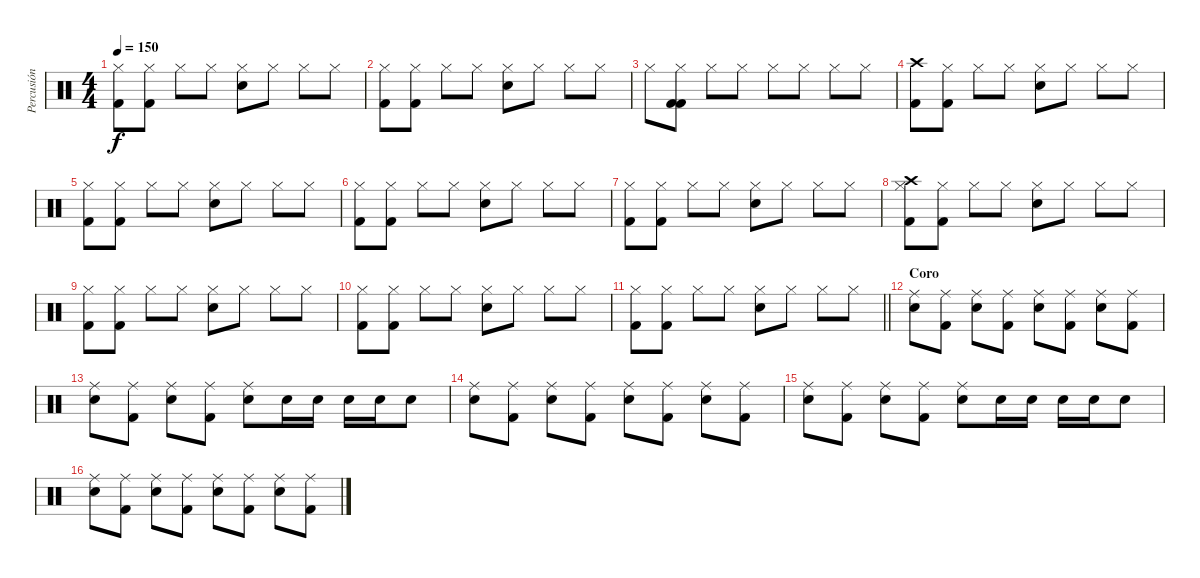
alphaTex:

\track ("Percusión" "Percusión") {instrument percussion}
\staff {score}
\articulation defaults
\ts (4 4)
\tempo 150
\clef neutral
\ks c
("Hi-Hat (closed)" "Kick (hit) 2").8{dy f} ("Hi-Hat (closed)" "Kick (hit) 2").8 "Hi-Hat (closed)".8 "Hi-Hat (closed)".8 ("Hi-Hat (closed)" "Snare (hit) 2").8 "Hi-Hat (closed)".8 "Hi-Hat (closed)".8 "Hi-Hat (closed)".8 |
("Hi-Hat (closed)" "Kick (hit) 2").8 ("Hi-Hat (closed)" "Kick (hit) 2").8 "Hi-Hat (closed)".8 "Hi-Hat (closed)".8 ("Hi-Hat (closed)" "Snare (hit) 2").8 "Hi-Hat (closed)".8 "Hi-Hat (closed)".8 "Hi-Hat (closed)".8 |
"Hi-Hat (closed)".8 ("Hi-Hat (closed)" "Kick (hit) 2" "Kick (hit) 2").8 "Hi-Hat (closed)".8 "Hi-Hat (closed)".8 "Hi-Hat (closed)".8 "Hi-Hat (closed)".8 "Hi-Hat (closed)".8 "Hi-Hat (closed)".8 |
("Crash high (hit)" "Kick (hit) 2").8 ("Hi-Hat (closed)" "Kick (hit) 2").8 "Hi-Hat (closed)".8 "Hi-Hat (closed)".8 ("Hi-Hat (closed)" "Snare (hit) 2").8 "Hi-Hat (closed)".8 "Hi-Hat (closed)".8 "Hi-Hat (closed)".8 |
("Hi-Hat (closed)" "Kick (hit) 2").8 ("Hi-Hat (closed)" "Kick (hit) 2").8 "Hi-Hat (closed)".8 "Hi-Hat (closed)".8 ("Hi-Hat (closed)" "Snare (hit) 2").8 "Hi-Hat (closed)".8 "Hi-Hat (closed)".8 "Hi-Hat (closed)".8 |
("Hi-Hat (closed)" "Kick (hit) 2").8 ("Hi-Hat (closed)" "Kick (hit) 2").8 "Hi-Hat (closed)".8 "Hi-Hat (closed)".8 ("Hi-Hat (closed)" "Snare (hit) 2").8 "Hi-Hat (closed)".8 "Hi-Hat (closed)".8 "Hi-Hat (closed)".8 |
("Hi-Hat (closed)" "Kick (hit) 2").8 ("Hi-Hat (closed)" "Kick (hit) 2").8 "Hi-Hat (closed)".8 "Hi-Hat (closed)".8 ("Hi-Hat (closed)" "Snare (hit) 2").8 "Hi-Hat (closed)".8 "Hi-Hat (closed)".8 "Hi-Hat (closed)".8 |
("Crash high (hit)" "Hi-Hat (closed)" "Kick (hit) 2").8 ("Hi-Hat (closed)" "Kick (hit) 2").8 "Hi-Hat (closed)".8 "Hi-Hat (closed)".8 ("Hi-Hat (closed)" "Snare (hit) 2").8 "Hi-Hat (closed)".8 "Hi-Hat (closed)".8 "Hi-Hat (closed)".8 |
("Hi-Hat (closed)" "Kick (hit) 2").8 ("Hi-Hat (closed)" "Kick (hit) 2").8 "Hi-Hat (closed)".8 "Hi-Hat (closed)".8 ("Hi-Hat (closed)" "Snare (hit) 2").8 "Hi-Hat (closed)".8 "Hi-Hat (closed)".8 "Hi-Hat (closed)".8 |
("Hi-Hat (closed)" "Kick (hit) 2").8 ("Hi-Hat (closed)" "Kick (hit) 2").8 "Hi-Hat (closed)".8 "Hi-Hat (closed)".8 ("Hi-Hat (closed)" "Snare (hit) 2").8 "Hi-Hat (closed)".8 "Hi-Hat (closed)".8 "Hi-Hat (closed)".8 |
\barLineRight lightlight
("Hi-Hat (closed)" "Kick (hit) 2").8 ("Hi-Hat (closed)" "Kick (hit) 2").8 "Hi-Hat (closed)".8 "Hi-Hat (closed)".8 ("Hi-Hat (closed)" "Snare (hit) 2").8 "Hi-Hat (closed)".8 "Hi-Hat (closed)".8 "Hi-Hat (closed)".8 |
\section ("" "Coro")
("Ride (middle)" "Snare (hit) 2").8 ("Ride (middle)" "Kick (hit) 2").8 ("Ride (middle)" "Snare (hit) 2").8 ("Ride (middle)" "Kick (hit) 2").8 ("Ride (middle)" "Snare (hit) 2").8 ("Ride (middle)" "Kick (hit) 2").8 ("Ride (middle)" "Snare (hit) 2").8 ("Ride (middle)" "Kick (hit) 2").8 |
("Ride (middle)" "Snare (hit) 2").8 ("Ride (middle)" "Kick (hit) 2").8 ("Ride (middle)" "Snare (hit) 2").8 ("Ride (middle)" "Kick (hit) 2").8 ("Ride (middle)" "Snare (hit) 2").8 "Snare (hit) 2".16 "Snare (hit) 2".16 "Snare (hit) 2".16 "Snare (hit) 2".16 "Snare (hit) 2".8 |
("Ride (middle)" "Snare (hit) 2").8 ("Ride (middle)" "Kick (hit) 2").8 ("Ride (middle)" "Snare (hit) 2").8 ("Ride (middle)" "Kick (hit) 2").8 ("Ride (middle)" "Snare (hit) 2").8 ("Ride (middle)" "Kick (hit) 2").8 ("Ride (middle)" "Snare (hit) 2").8 ("Ride (middle)" "Kick (hit) 2").8 |
("Ride (middle)" "Snare (hit) 2").8 ("Ride (middle)" "Kick (hit) 2").8 ("Ride (middle)" "Snare (hit) 2").8 ("Ride (middle)" "Kick (hit) 2").8 ("Ride (middle)" "Snare (hit) 2").8 "Snare (hit) 2".16 "Snare (hit) 2".16 "Snare (hit) 2".16 "Snare (hit) 2".16 "Snare (hit) 2".8 |
("Ride (middle)" "Snare (hit) 2").8 ("Ride (middle)" "Kick (hit) 2").8 ("Ride (middle)" "Snare (hit) 2").8 ("Ride (middle)" "Kick (hit) 2").8 ("Ride (middle)" "Snare (hit) 2").8 ("Ride (middle)" "Kick (hit) 2").8 ("Ride (middle)" "Snare (hit) 2").8 ("Ride (middle)" "Kick (hit) 2").8
